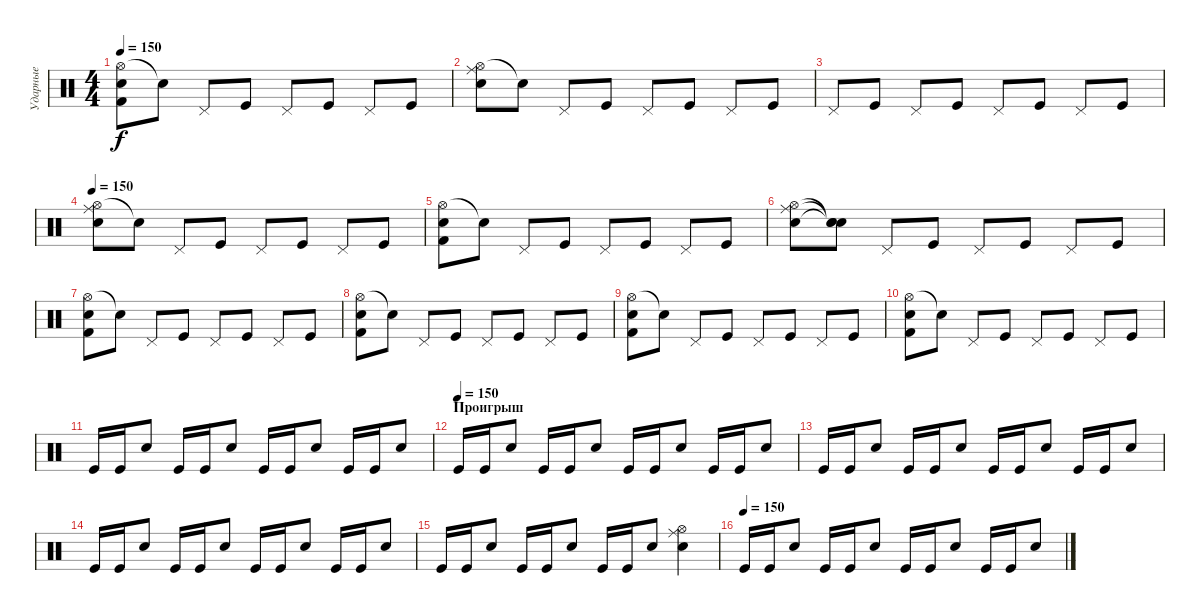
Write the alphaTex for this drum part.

\track ("Ударные" "Ударные") {instrument percussion}
\staff {score}
\articulation defaults
\ts (4 4)
\tempo 150
\clef neutral
\ks c
("Hi-Hat (open)" "Electric Snare (hit)" "Kick (hit) 2").8{dy f} "Electric Snare (hit)"{t}.8 "Pedal Hi-Hat (hit)".8 "Kick (hit)".8 "Pedal Hi-Hat (hit)".8 "Kick (hit)".8 "Pedal Hi-Hat (hit)".8 "Kick (hit)".8 |
("Hi-Hat (open)" "Electric Snare (hit)" "Ride (middle)").8 "Electric Snare (hit)"{t}.8 "Pedal Hi-Hat (hit)".8 "Kick (hit)".8 "Pedal Hi-Hat (hit)".8 "Kick (hit)".8 "Pedal Hi-Hat (hit)".8 "Kick (hit)".8 |
"Pedal Hi-Hat (hit)".8 "Kick (hit)".8 "Pedal Hi-Hat (hit)".8 "Kick (hit)".8 "Pedal Hi-Hat (hit)".8 "Kick (hit)".8 "Pedal Hi-Hat (hit)".8 "Kick (hit)".8 |
\tempo 150
("Hi-Hat (open)" "Electric Snare (hit)" "Ride (middle)").8 "Electric Snare (hit)"{t}.8 "Pedal Hi-Hat (hit)".8 "Kick (hit)".8 "Pedal Hi-Hat (hit)".8 "Kick (hit)".8 "Pedal Hi-Hat (hit)".8 "Kick (hit)".8 |
("Hi-Hat (open)" "Electric Snare (hit)" "Kick (hit) 2").8 "Electric Snare (hit)"{t}.8 "Pedal Hi-Hat (hit)".8 "Kick (hit)".8 "Pedal Hi-Hat (hit)".8 "Kick (hit)".8 "Pedal Hi-Hat (hit)".8 "Kick (hit)".8 |
("Hi-Hat (open)" "Electric Snare (hit)" "Ride (middle)").8 ("Electric Snare (hit)"{t} "Snare (hit)"{t} "Snare (hit)"{t}).8 "Pedal Hi-Hat (hit)".8 "Kick (hit)".8 "Pedal Hi-Hat (hit)".8 "Kick (hit)".8 "Pedal Hi-Hat (hit)".8 "Kick (hit)".8 |
("Hi-Hat (open)" "Electric Snare (hit)" "Kick (hit) 2").8 "Electric Snare (hit)"{t}.8 "Pedal Hi-Hat (hit)".8 "Kick (hit)".8 "Pedal Hi-Hat (hit)".8 "Kick (hit)".8 "Pedal Hi-Hat (hit)".8 "Kick (hit)".8 |
("Hi-Hat (open)" "Electric Snare (hit)" "Kick (hit) 2").8 "Electric Snare (hit)"{t}.8 "Pedal Hi-Hat (hit)".8 "Kick (hit)".8 "Pedal Hi-Hat (hit)".8 "Kick (hit)".8 "Pedal Hi-Hat (hit)".8 "Kick (hit)".8 |
("Hi-Hat (open)" "Electric Snare (hit)" "Kick (hit) 2").8 "Electric Snare (hit)"{t}.8 "Pedal Hi-Hat (hit)".8 "Kick (hit)".8 "Pedal Hi-Hat (hit)".8 "Kick (hit)".8 "Pedal Hi-Hat (hit)".8 "Kick (hit)".8 |
("Hi-Hat (open)" "Electric Snare (hit)" "Kick (hit) 2").8 "Electric Snare (hit)"{t}.8 "Pedal Hi-Hat (hit)".8 "Kick (hit)".8 "Pedal Hi-Hat (hit)".8 "Kick (hit)".8 "Pedal Hi-Hat (hit)".8 "Kick (hit)".8 |
"Kick (hit)".16 "Kick (hit)".16 "Electric Snare (hit)".8 "Kick (hit)".16 "Kick (hit)".16 "Electric Snare (hit)".8 "Kick (hit)".16 "Kick (hit)".16 "Electric Snare (hit)".8 "Kick (hit)".16 "Kick (hit)".16 "Electric Snare (hit)".8 |
\section ("" "Проигрыш")
\tempo (150)
"Kick (hit)".16 "Kick (hit)".16 "Electric Snare (hit)".8 "Kick (hit)".16 "Kick (hit)".16 "Electric Snare (hit)".8 "Kick (hit)".16 "Kick (hit)".16 "Electric Snare (hit)".8 "Kick (hit)".16 "Kick (hit)".16 "Electric Snare (hit)".8 |
"Kick (hit)".16 "Kick (hit)".16 "Electric Snare (hit)".8 "Kick (hit)".16 "Kick (hit)".16 "Electric Snare (hit)".8 "Kick (hit)".16 "Kick (hit)".16 "Electric Snare (hit)".8 "Kick (hit)".16 "Kick (hit)".16 "Electric Snare (hit)".8 |
"Kick (hit)".16 "Kick (hit)".16 "Electric Snare (hit)".8 "Kick (hit)".16 "Kick (hit)".16 "Electric Snare (hit)".8 "Kick (hit)".16 "Kick (hit)".16 "Electric Snare (hit)".8 "Kick (hit)".16 "Kick (hit)".16 "Electric Snare (hit)".8 |
"Kick (hit)".16 "Kick (hit)".16 "Electric Snare (hit)".8 "Kick (hit)".16 "Kick (hit)".16 "Electric Snare (hit)".8 "Kick (hit)".16 "Kick (hit)".16 "Electric Snare (hit)".8 ("Electric Snare (hit)" "Hi-Hat (open)" "Ride (middle)").4 |
\tempo (150)
"Kick (hit)".16 "Kick (hit)".16 "Electric Snare (hit)".8 "Kick (hit)".16 "Kick (hit)".16 "Electric Snare (hit)".8 "Kick (hit)".16 "Kick (hit)".16 "Electric Snare (hit)".8 "Kick (hit)".16 "Kick (hit)".16 "Electric Snare (hit)".8
